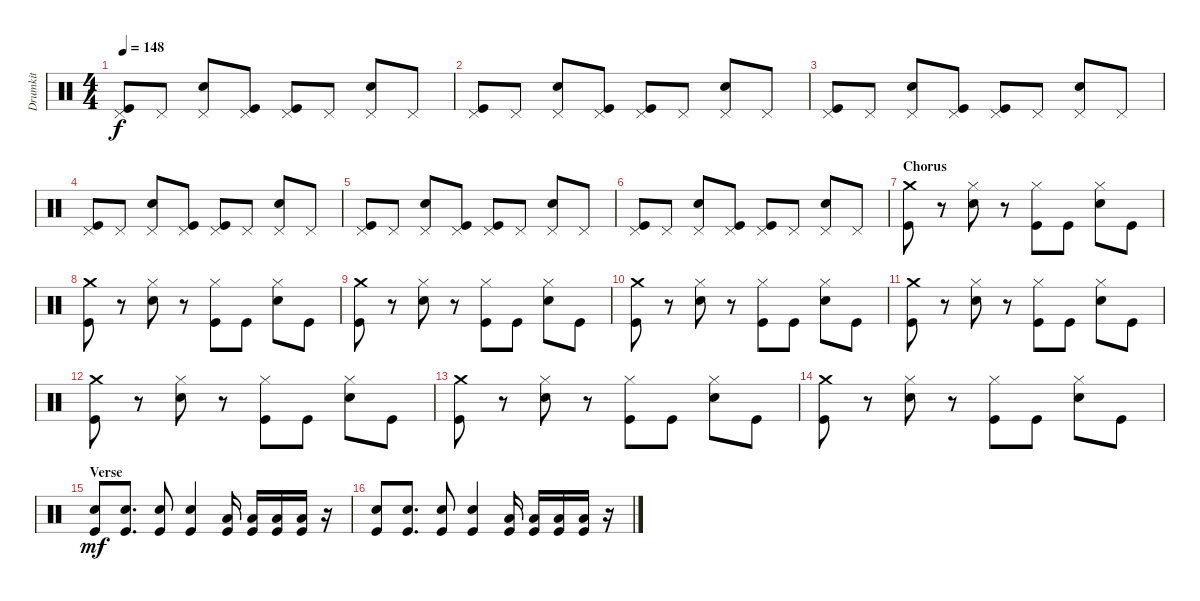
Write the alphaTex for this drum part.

\track ("Drumkit" "Drumkit") {instrument percussion}
\staff {score}
\articulation defaults
\ts (4 4)
\tempo 148
\clef neutral
\ks c
("Pedal Hi-Hat (hit)" "Kick (hit)").8{dy f} "Pedal Hi-Hat (hit)".8 ("Pedal Hi-Hat (hit)" "Snare (hit) 2").8 ("Pedal Hi-Hat (hit)" "Kick (hit)").8 ("Pedal Hi-Hat (hit)" "Kick (hit)").8 "Pedal Hi-Hat (hit)".8 ("Pedal Hi-Hat (hit)" "Snare (hit) 2").8 "Pedal Hi-Hat (hit)".8 |
("Pedal Hi-Hat (hit)" "Kick (hit)").8 "Pedal Hi-Hat (hit)".8 ("Pedal Hi-Hat (hit)" "Snare (hit) 2").8 ("Pedal Hi-Hat (hit)" "Kick (hit)").8 ("Pedal Hi-Hat (hit)" "Kick (hit)").8 "Pedal Hi-Hat (hit)".8 ("Pedal Hi-Hat (hit)" "Snare (hit) 2").8 "Pedal Hi-Hat (hit)".8 |
("Pedal Hi-Hat (hit)" "Kick (hit)").8 "Pedal Hi-Hat (hit)".8 ("Pedal Hi-Hat (hit)" "Snare (hit) 2").8 ("Pedal Hi-Hat (hit)" "Kick (hit)").8 ("Pedal Hi-Hat (hit)" "Kick (hit)").8 "Pedal Hi-Hat (hit)".8 ("Pedal Hi-Hat (hit)" "Snare (hit) 2").8 "Pedal Hi-Hat (hit)".8 |
("Pedal Hi-Hat (hit)" "Kick (hit)").8 "Pedal Hi-Hat (hit)".8 ("Pedal Hi-Hat (hit)" "Snare (hit) 2").8 ("Pedal Hi-Hat (hit)" "Kick (hit)").8 ("Pedal Hi-Hat (hit)" "Kick (hit)").8 "Pedal Hi-Hat (hit)".8 ("Pedal Hi-Hat (hit)" "Snare (hit) 2").8 "Pedal Hi-Hat (hit)".8 |
("Pedal Hi-Hat (hit)" "Kick (hit)").8 "Pedal Hi-Hat (hit)".8 ("Pedal Hi-Hat (hit)" "Snare (hit) 2").8 ("Pedal Hi-Hat (hit)" "Kick (hit)").8 ("Pedal Hi-Hat (hit)" "Kick (hit)").8 "Pedal Hi-Hat (hit)".8 ("Pedal Hi-Hat (hit)" "Snare (hit) 2").8 "Pedal Hi-Hat (hit)".8 |
("Pedal Hi-Hat (hit)" "Kick (hit)").8 "Pedal Hi-Hat (hit)".8 ("Pedal Hi-Hat (hit)" "Snare (hit) 2").8 ("Pedal Hi-Hat (hit)" "Kick (hit)").8 ("Pedal Hi-Hat (hit)" "Kick (hit)").8 "Pedal Hi-Hat (hit)".8 ("Pedal Hi-Hat (hit)" "Snare (hit) 2").8 "Pedal Hi-Hat (hit)".8 |
\section ("" "Chorus")
("Crash medium (hit)" "Kick (hit)").8 r.8 ("Hi-Hat (closed)" "Snare (hit) 2").8 r.8 ("Hi-Hat (closed)" "Kick (hit)").8 "Kick (hit)".8 ("Hi-Hat (closed)" "Snare (hit) 2").8 "Kick (hit)".8 |
("Crash medium (hit)" "Kick (hit)").8 r.8 ("Hi-Hat (closed)" "Snare (hit) 2").8 r.8 ("Hi-Hat (closed)" "Kick (hit)").8 "Kick (hit)".8 ("Hi-Hat (closed)" "Snare (hit) 2").8 "Kick (hit)".8 |
("Crash medium (hit)" "Kick (hit)").8 r.8 ("Hi-Hat (closed)" "Snare (hit) 2").8 r.8 ("Hi-Hat (closed)" "Kick (hit)").8 "Kick (hit)".8 ("Hi-Hat (closed)" "Snare (hit) 2").8 "Kick (hit)".8 |
("Crash medium (hit)" "Kick (hit)").8 r.8 ("Hi-Hat (closed)" "Snare (hit) 2").8 r.8 ("Hi-Hat (closed)" "Kick (hit)").8 "Kick (hit)".8 ("Hi-Hat (closed)" "Snare (hit) 2").8 "Kick (hit)".8 |
("Crash medium (hit)" "Kick (hit)").8 r.8 ("Hi-Hat (closed)" "Snare (hit) 2").8 r.8 ("Hi-Hat (closed)" "Kick (hit)").8 "Kick (hit)".8 ("Hi-Hat (closed)" "Snare (hit) 2").8 "Kick (hit)".8 |
("Crash medium (hit)" "Kick (hit)").8 r.8 ("Hi-Hat (closed)" "Snare (hit) 2").8 r.8 ("Hi-Hat (closed)" "Kick (hit)").8 "Kick (hit)".8 ("Hi-Hat (closed)" "Snare (hit) 2").8 "Kick (hit)".8 |
("Crash medium (hit)" "Kick (hit)").8 r.8 ("Hi-Hat (closed)" "Snare (hit) 2").8 r.8 ("Hi-Hat (closed)" "Kick (hit)").8 "Kick (hit)".8 ("Hi-Hat (closed)" "Snare (hit) 2").8 "Kick (hit)".8 |
("Crash medium (hit)" "Kick (hit)").8 r.8 ("Hi-Hat (closed)" "Snare (hit) 2").8 r.8 ("Hi-Hat (closed)" "Kick (hit)").8 "Kick (hit)".8 ("Hi-Hat (closed)" "Snare (hit) 2").8 "Kick (hit)".8 |
\section ("" "Verse")
("Snare (hit) 2" "Kick (hit)").8{dy mf} ("Snare (hit) 2" "Kick (hit)").8{d} ("Snare (hit) 2" "Kick (hit)").8 ("Snare (hit) 2" "Kick (hit)").4 ("Kick (hit)" "Low Tom (hit)").16 ("Kick (hit)" "Low Tom (hit)").16 ("Kick (hit)" "Low Tom (hit)").16 ("Kick (hit)" "Low Tom (hit)").16 r.16 |
("Snare (hit) 2" "Kick (hit)").8 ("Snare (hit) 2" "Kick (hit)").8{d} ("Snare (hit) 2" "Kick (hit)").8 ("Snare (hit) 2" "Kick (hit)").4 ("Kick (hit)" "Low Tom (hit)").16 ("Kick (hit)" "Low Tom (hit)").16 ("Kick (hit)" "Low Tom (hit)").16 ("Kick (hit)" "Low Tom (hit)").16 r.16
